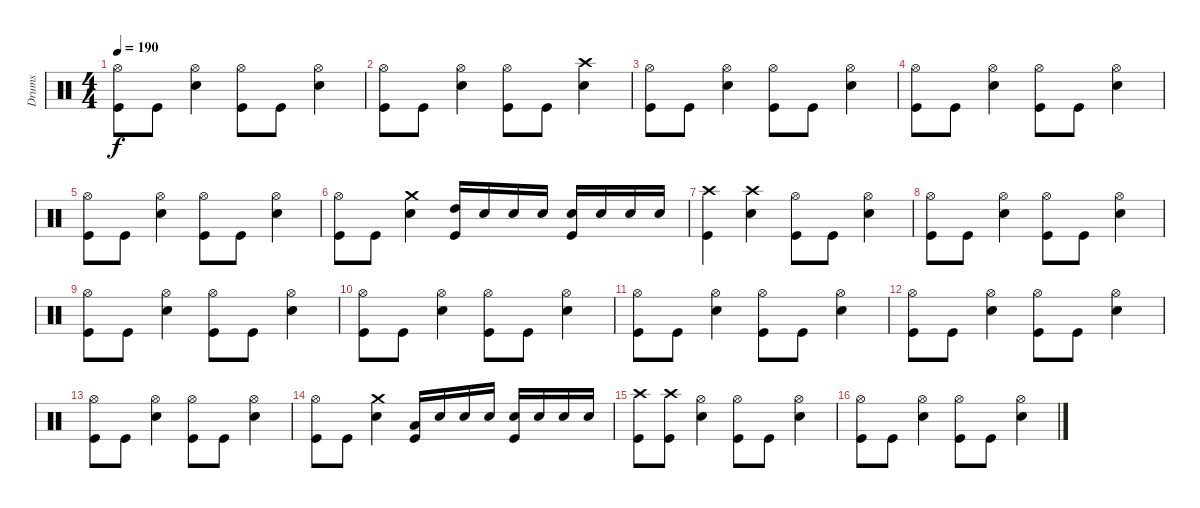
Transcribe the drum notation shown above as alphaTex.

\track ("Drums" "Drums") {instrument percussion}
\staff {score}
\articulation defaults
\ts (4 4)
\tempo 190
\clef neutral
\ks c
("Kick (hit)" "Hi-Hat (open)").8{dy f} "Kick (hit)".8 ("Electric Snare (hit)" "Hi-Hat (open)").4 ("Kick (hit)" "Hi-Hat (open)").8 "Kick (hit)".8 ("Electric Snare (hit)" "Hi-Hat (open)").4 |
("Kick (hit)" "Hi-Hat (open)").8 "Kick (hit)".8 ("Electric Snare (hit)" "Hi-Hat (open)").4 ("Kick (hit)" "Hi-Hat (open)").8 "Kick (hit)".8 ("Electric Snare (hit)" "Crash high (hit)").4 |
("Kick (hit)" "Hi-Hat (open)").8 "Kick (hit)".8 ("Electric Snare (hit)" "Hi-Hat (open)").4 ("Kick (hit)" "Hi-Hat (open)").8 "Kick (hit)".8 ("Electric Snare (hit)" "Hi-Hat (open)").4 |
("Kick (hit)" "Hi-Hat (open)").8 "Kick (hit)".8 ("Electric Snare (hit)" "Hi-Hat (open)").4 ("Kick (hit)" "Hi-Hat (open)").8 "Kick (hit)".8 ("Electric Snare (hit)" "Hi-Hat (open)").4 |
("Kick (hit)" "Hi-Hat (open)").8 "Kick (hit)".8 ("Electric Snare (hit)" "Hi-Hat (open)").4 ("Kick (hit)" "Hi-Hat (open)").8 "Kick (hit)".8 ("Electric Snare (hit)" "Hi-Hat (open)").4 |
("Kick (hit)" "Hi-Hat (open)").8 "Kick (hit)".8 ("Electric Snare (hit)" "Crash medium (hit)").4 ("Kick (hit)" "High Tom (hit)").16 "Electric Snare (hit)".16 "Electric Snare (hit)".16 "Electric Snare (hit)".16 ("Kick (hit)" "Electric Snare (hit)").16 "Electric Snare (hit)".16 "Electric Snare (hit)".16 "Electric Snare (hit)".16 |
("Kick (hit)" "Crash high (hit)").4 ("Electric Snare (hit)" "Crash high (hit)").4 ("Kick (hit)" "Hi-Hat (open)").8 "Kick (hit)".8 ("Electric Snare (hit)" "Hi-Hat (open)").4 |
("Kick (hit)" "Hi-Hat (open)").8 "Kick (hit)".8 ("Electric Snare (hit)" "Hi-Hat (open)").4 ("Kick (hit)" "Hi-Hat (open)").8 "Kick (hit)".8 ("Electric Snare (hit)" "Hi-Hat (open)").4 |
("Kick (hit)" "Hi-Hat (open)").8 "Kick (hit)".8 ("Electric Snare (hit)" "Hi-Hat (open)").4 ("Kick (hit)" "Hi-Hat (open)").8 "Kick (hit)".8 ("Electric Snare (hit)" "Hi-Hat (open)").4 |
("Kick (hit)" "Hi-Hat (open)").8 "Kick (hit)".8 ("Electric Snare (hit)" "Hi-Hat (open)").4 ("Kick (hit)" "Hi-Hat (open)").8 "Kick (hit)".8 ("Electric Snare (hit)" "Hi-Hat (open)").4 |
("Kick (hit)" "Hi-Hat (open)").8 "Kick (hit)".8 ("Electric Snare (hit)" "Hi-Hat (open)").4 ("Kick (hit)" "Hi-Hat (open)").8 "Kick (hit)".8 ("Electric Snare (hit)" "Hi-Hat (open)").4 |
("Kick (hit)" "Hi-Hat (open)").8 "Kick (hit)".8 ("Electric Snare (hit)" "Hi-Hat (open)").4 ("Kick (hit)" "Hi-Hat (open)").8 "Kick (hit)".8 ("Electric Snare (hit)" "Hi-Hat (open)").4 |
("Kick (hit)" "Hi-Hat (open)").8 "Kick (hit)".8 ("Electric Snare (hit)" "Hi-Hat (open)").4 ("Kick (hit)" "Hi-Hat (open)").8 "Kick (hit)".8 ("Electric Snare (hit)" "Hi-Hat (open)").4 |
("Kick (hit)" "Hi-Hat (open)").8 "Kick (hit)".8 ("Electric Snare (hit)" "Crash medium (hit)").4 ("Kick (hit)" "Low Tom (hit)").16 "Electric Snare (hit)".16 "Electric Snare (hit)".16 "Electric Snare (hit)".16 ("Kick (hit)" "Electric Snare (hit)").16 "Electric Snare (hit)".16 "Electric Snare (hit)".16 "Electric Snare (hit)".16 |
("Kick (hit)" "Crash high (hit)").8 ("Kick (hit)" "Crash high (hit)").8 ("Electric Snare (hit)" "Hi-Hat (open)").4 ("Kick (hit)" "Hi-Hat (open)").8 "Kick (hit)".8 ("Electric Snare (hit)" "Hi-Hat (open)").4 |
("Kick (hit)" "Hi-Hat (open)").8 "Kick (hit)".8 ("Electric Snare (hit)" "Hi-Hat (open)").4 ("Kick (hit)" "Hi-Hat (open)").8 "Kick (hit)".8 ("Electric Snare (hit)" "Hi-Hat (open)").4
